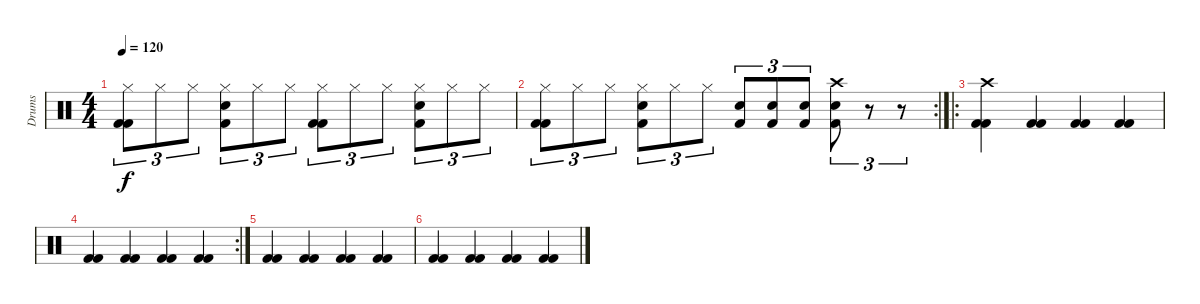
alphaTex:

\track ("Drums" "Drums") {instrument percussion}
\staff {score}
\articulation defaults
\ts (4 4)
\tempo 120
\clef neutral
\ks c
("Hi-Hat (closed)" "Kick (hit) 2" "Kick (hit) 2").8{tu (3 2) dy f} "Hi-Hat (closed)".8{tu (3 2)} "Hi-Hat (closed)".8{tu (3 2)} ("Hi-Hat (closed)" "Snare (hit) 2" "Kick (hit) 2").8{tu (3 2)} "Hi-Hat (closed)".8{tu (3 2)} "Hi-Hat (closed)".8{tu (3 2)} ("Hi-Hat (closed)" "Kick (hit) 2" "Kick (hit) 2").8{tu (3 2)} "Hi-Hat (closed)".8{tu (3 2)} "Hi-Hat (closed)".8{tu (3 2)} ("Hi-Hat (closed)" "Kick (hit) 2" "Snare (hit) 2").8{tu (3 2)} "Hi-Hat (closed)".8{tu (3 2)} "Hi-Hat (closed)".8{tu (3 2)} |
\rc 2
("Hi-Hat (closed)" "Kick (hit) 2" "Kick (hit) 2").8{tu (3 2)} "Hi-Hat (closed)".8{tu (3 2)} "Hi-Hat (closed)".8{tu (3 2)} ("Hi-Hat (closed)" "Snare (hit) 2" "Kick (hit) 2").8{tu (3 2)} "Hi-Hat (closed)".8{tu (3 2)} "Hi-Hat (closed)".8{tu (3 2)} ("Snare (hit) 2" "Kick (hit) 2").8{tu (3 2)} ("Snare (hit) 2" "Kick (hit) 2").8{tu (3 2)} ("Snare (hit) 2" "Kick (hit) 2").8{tu (3 2)} ("Crash high (hit)" "Snare (hit) 2" "Kick (hit) 2").8{tu (3 2)} r.8{tu (3 2)} r.8{tu (3 2)} |
\ro
("Crash high (hit)" "Kick (hit) 2" "Kick (hit) 2").4 ("Kick (hit) 2" "Kick (hit) 2").4 ("Kick (hit) 2" "Kick (hit) 2").4 ("Kick (hit) 2" "Kick (hit) 2").4 |
\rc 2
("Kick (hit) 2" "Kick (hit) 2").4 ("Kick (hit) 2" "Kick (hit) 2").4 ("Kick (hit) 2" "Kick (hit) 2").4 ("Kick (hit) 2" "Kick (hit) 2").4 |
("Kick (hit) 2" "Kick (hit) 2").4 ("Kick (hit) 2" "Kick (hit) 2").4 ("Kick (hit) 2" "Kick (hit) 2").4 ("Kick (hit) 2" "Kick (hit) 2").4 |
("Kick (hit) 2" "Kick (hit) 2").4{volume 0} ("Kick (hit) 2" "Kick (hit) 2").4 ("Kick (hit) 2" "Kick (hit) 2").4 ("Kick (hit) 2" "Kick (hit) 2").4
